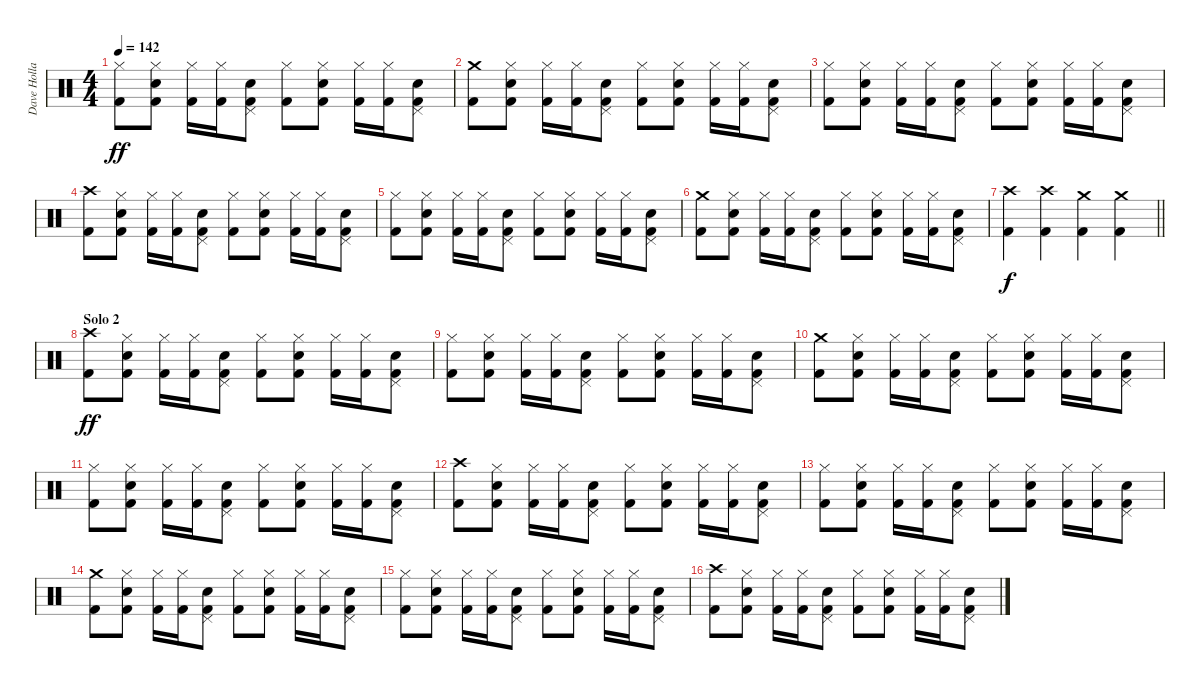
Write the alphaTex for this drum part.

\track ("Dave Holland" "Dave Holla") {instrument percussion}
\staff {score}
\articulation defaults
\ts (4 4)
\tempo 142
\clef neutral
\ks c
("Hi-Hat (closed)" "Kick (hit) 2").8{dy ff} ("Hi-Hat (closed)" "Snare (hit) 2" "Kick (hit) 2").8 ("Hi-Hat (closed)" "Kick (hit) 2").16 ("Hi-Hat (closed)" "Kick (hit) 2").16 ("Pedal Hi-Hat (hit)" "Snare (hit) 2" "Kick (hit) 2").8 ("Hi-Hat (closed)" "Kick (hit) 2").8 ("Hi-Hat (closed)" "Snare (hit) 2" "Kick (hit) 2").8 ("Hi-Hat (closed)" "Kick (hit) 2").16 ("Hi-Hat (closed)" "Kick (hit) 2").16 ("Pedal Hi-Hat (hit)" "Snare (hit) 2" "Kick (hit) 2").8 |
("Crash medium (hit)" "Kick (hit) 2").8 ("Hi-Hat (closed)" "Snare (hit) 2" "Kick (hit) 2").8 ("Hi-Hat (closed)" "Kick (hit) 2").16 ("Hi-Hat (closed)" "Kick (hit) 2").16 ("Pedal Hi-Hat (hit)" "Snare (hit) 2" "Kick (hit) 2").8 ("Hi-Hat (closed)" "Kick (hit) 2").8 ("Hi-Hat (closed)" "Snare (hit) 2" "Kick (hit) 2").8 ("Hi-Hat (closed)" "Kick (hit) 2").16 ("Hi-Hat (closed)" "Kick (hit) 2").16 ("Pedal Hi-Hat (hit)" "Snare (hit) 2" "Kick (hit) 2").8 |
("Hi-Hat (closed)" "Kick (hit) 2").8 ("Hi-Hat (closed)" "Snare (hit) 2" "Kick (hit) 2").8 ("Hi-Hat (closed)" "Kick (hit) 2").16 ("Hi-Hat (closed)" "Kick (hit) 2").16 ("Pedal Hi-Hat (hit)" "Snare (hit) 2" "Kick (hit) 2").8 ("Hi-Hat (closed)" "Kick (hit) 2").8 ("Hi-Hat (closed)" "Snare (hit) 2" "Kick (hit) 2").8 ("Hi-Hat (closed)" "Kick (hit) 2").16 ("Hi-Hat (closed)" "Kick (hit) 2").16 ("Pedal Hi-Hat (hit)" "Snare (hit) 2" "Kick (hit) 2").8 |
("Crash high (hit)" "Kick (hit) 2").8 ("Hi-Hat (closed)" "Snare (hit) 2" "Kick (hit) 2").8 ("Hi-Hat (closed)" "Kick (hit) 2").16 ("Hi-Hat (closed)" "Kick (hit) 2").16 ("Pedal Hi-Hat (hit)" "Snare (hit) 2" "Kick (hit) 2").8 ("Hi-Hat (closed)" "Kick (hit) 2").8 ("Hi-Hat (closed)" "Snare (hit) 2" "Kick (hit) 2").8 ("Hi-Hat (closed)" "Kick (hit) 2").16 ("Hi-Hat (closed)" "Kick (hit) 2").16 ("Pedal Hi-Hat (hit)" "Snare (hit) 2" "Kick (hit) 2").8 |
("Hi-Hat (closed)" "Kick (hit) 2").8 ("Hi-Hat (closed)" "Snare (hit) 2" "Kick (hit) 2").8 ("Hi-Hat (closed)" "Kick (hit) 2").16 ("Hi-Hat (closed)" "Kick (hit) 2").16 ("Pedal Hi-Hat (hit)" "Snare (hit) 2" "Kick (hit) 2").8 ("Hi-Hat (closed)" "Kick (hit) 2").8 ("Hi-Hat (closed)" "Snare (hit) 2" "Kick (hit) 2").8 ("Hi-Hat (closed)" "Kick (hit) 2").16 ("Hi-Hat (closed)" "Kick (hit) 2").16 ("Pedal Hi-Hat (hit)" "Snare (hit) 2" "Kick (hit) 2").8 |
("Crash medium (hit)" "Kick (hit) 2").8 ("Hi-Hat (closed)" "Snare (hit) 2" "Kick (hit) 2").8 ("Hi-Hat (closed)" "Kick (hit) 2").16 ("Hi-Hat (closed)" "Kick (hit) 2").16 ("Pedal Hi-Hat (hit)" "Snare (hit) 2" "Kick (hit) 2").8 ("Hi-Hat (closed)" "Kick (hit) 2").8 ("Hi-Hat (closed)" "Snare (hit) 2" "Kick (hit) 2").8 ("Hi-Hat (closed)" "Kick (hit) 2").16 ("Hi-Hat (closed)" "Kick (hit) 2").16 ("Pedal Hi-Hat (hit)" "Snare (hit) 2" "Kick (hit) 2").8 |
\barLineRight lightlight
("Crash high (hit)" "Kick (hit) 2").4{dy f} ("Crash high (hit)" "Kick (hit) 2").4 ("Crash medium (hit)" "Kick (hit) 2").4 ("Crash medium (hit)" "Kick (hit) 2").4 |
\section ("" "Solo 2")
("Crash high (hit)" "Kick (hit) 2").8{dy ff} ("Hi-Hat (closed)" "Snare (hit) 2" "Kick (hit) 2").8 ("Hi-Hat (closed)" "Kick (hit) 2").16 ("Hi-Hat (closed)" "Kick (hit) 2").16 ("Pedal Hi-Hat (hit)" "Snare (hit) 2" "Kick (hit) 2").8 ("Hi-Hat (closed)" "Kick (hit) 2").8 ("Hi-Hat (closed)" "Snare (hit) 2" "Kick (hit) 2").8 ("Hi-Hat (closed)" "Kick (hit) 2").16 ("Hi-Hat (closed)" "Kick (hit) 2").16 ("Pedal Hi-Hat (hit)" "Snare (hit) 2" "Kick (hit) 2").8 |
("Hi-Hat (closed)" "Kick (hit) 2").8 ("Hi-Hat (closed)" "Snare (hit) 2" "Kick (hit) 2").8 ("Hi-Hat (closed)" "Kick (hit) 2").16 ("Hi-Hat (closed)" "Kick (hit) 2").16 ("Pedal Hi-Hat (hit)" "Snare (hit) 2" "Kick (hit) 2").8 ("Hi-Hat (closed)" "Kick (hit) 2").8 ("Hi-Hat (closed)" "Snare (hit) 2" "Kick (hit) 2").8 ("Hi-Hat (closed)" "Kick (hit) 2").16 ("Hi-Hat (closed)" "Kick (hit) 2").16 ("Pedal Hi-Hat (hit)" "Snare (hit) 2" "Kick (hit) 2").8 |
("Crash medium (hit)" "Kick (hit) 2").8 ("Hi-Hat (closed)" "Snare (hit) 2" "Kick (hit) 2").8 ("Hi-Hat (closed)" "Kick (hit) 2").16 ("Hi-Hat (closed)" "Kick (hit) 2").16 ("Pedal Hi-Hat (hit)" "Snare (hit) 2" "Kick (hit) 2").8 ("Hi-Hat (closed)" "Kick (hit) 2").8 ("Hi-Hat (closed)" "Snare (hit) 2" "Kick (hit) 2").8 ("Hi-Hat (closed)" "Kick (hit) 2").16 ("Hi-Hat (closed)" "Kick (hit) 2").16 ("Pedal Hi-Hat (hit)" "Snare (hit) 2" "Kick (hit) 2").8 |
("Hi-Hat (closed)" "Kick (hit) 2").8 ("Hi-Hat (closed)" "Snare (hit) 2" "Kick (hit) 2").8 ("Hi-Hat (closed)" "Kick (hit) 2").16 ("Hi-Hat (closed)" "Kick (hit) 2").16 ("Pedal Hi-Hat (hit)" "Snare (hit) 2" "Kick (hit) 2").8 ("Hi-Hat (closed)" "Kick (hit) 2").8 ("Hi-Hat (closed)" "Snare (hit) 2" "Kick (hit) 2").8 ("Hi-Hat (closed)" "Kick (hit) 2").16 ("Hi-Hat (closed)" "Kick (hit) 2").16 ("Pedal Hi-Hat (hit)" "Snare (hit) 2" "Kick (hit) 2").8 |
("Crash high (hit)" "Kick (hit) 2").8 ("Hi-Hat (closed)" "Snare (hit) 2" "Kick (hit) 2").8 ("Hi-Hat (closed)" "Kick (hit) 2").16 ("Hi-Hat (closed)" "Kick (hit) 2").16 ("Pedal Hi-Hat (hit)" "Snare (hit) 2" "Kick (hit) 2").8 ("Hi-Hat (closed)" "Kick (hit) 2").8 ("Hi-Hat (closed)" "Snare (hit) 2" "Kick (hit) 2").8 ("Hi-Hat (closed)" "Kick (hit) 2").16 ("Hi-Hat (closed)" "Kick (hit) 2").16 ("Pedal Hi-Hat (hit)" "Snare (hit) 2" "Kick (hit) 2").8 |
("Hi-Hat (closed)" "Kick (hit) 2").8 ("Hi-Hat (closed)" "Snare (hit) 2" "Kick (hit) 2").8 ("Hi-Hat (closed)" "Kick (hit) 2").16 ("Hi-Hat (closed)" "Kick (hit) 2").16 ("Pedal Hi-Hat (hit)" "Snare (hit) 2" "Kick (hit) 2").8 ("Hi-Hat (closed)" "Kick (hit) 2").8 ("Hi-Hat (closed)" "Snare (hit) 2" "Kick (hit) 2").8 ("Hi-Hat (closed)" "Kick (hit) 2").16 ("Hi-Hat (closed)" "Kick (hit) 2").16 ("Pedal Hi-Hat (hit)" "Snare (hit) 2" "Kick (hit) 2").8 |
("Crash medium (hit)" "Kick (hit) 2").8 ("Hi-Hat (closed)" "Snare (hit) 2" "Kick (hit) 2").8 ("Hi-Hat (closed)" "Kick (hit) 2").16 ("Hi-Hat (closed)" "Kick (hit) 2").16 ("Pedal Hi-Hat (hit)" "Snare (hit) 2" "Kick (hit) 2").8 ("Hi-Hat (closed)" "Kick (hit) 2").8 ("Hi-Hat (closed)" "Snare (hit) 2" "Kick (hit) 2").8 ("Hi-Hat (closed)" "Kick (hit) 2").16 ("Hi-Hat (closed)" "Kick (hit) 2").16 ("Pedal Hi-Hat (hit)" "Snare (hit) 2" "Kick (hit) 2").8 |
("Hi-Hat (closed)" "Kick (hit) 2").8 ("Hi-Hat (closed)" "Snare (hit) 2" "Kick (hit) 2").8 ("Hi-Hat (closed)" "Kick (hit) 2").16 ("Hi-Hat (closed)" "Kick (hit) 2").16 ("Pedal Hi-Hat (hit)" "Snare (hit) 2" "Kick (hit) 2").8 ("Hi-Hat (closed)" "Kick (hit) 2").8 ("Hi-Hat (closed)" "Snare (hit) 2" "Kick (hit) 2").8 ("Hi-Hat (closed)" "Kick (hit) 2").16 ("Hi-Hat (closed)" "Kick (hit) 2").16 ("Pedal Hi-Hat (hit)" "Snare (hit) 2" "Kick (hit) 2").8 |
("Crash high (hit)" "Kick (hit) 2").8 ("Hi-Hat (closed)" "Snare (hit) 2" "Kick (hit) 2").8 ("Hi-Hat (closed)" "Kick (hit) 2").16 ("Hi-Hat (closed)" "Kick (hit) 2").16 ("Pedal Hi-Hat (hit)" "Snare (hit) 2" "Kick (hit) 2").8 ("Hi-Hat (closed)" "Kick (hit) 2").8 ("Hi-Hat (closed)" "Snare (hit) 2" "Kick (hit) 2").8 ("Hi-Hat (closed)" "Kick (hit) 2").16 ("Hi-Hat (closed)" "Kick (hit) 2").16 ("Pedal Hi-Hat (hit)" "Snare (hit) 2" "Kick (hit) 2").8
